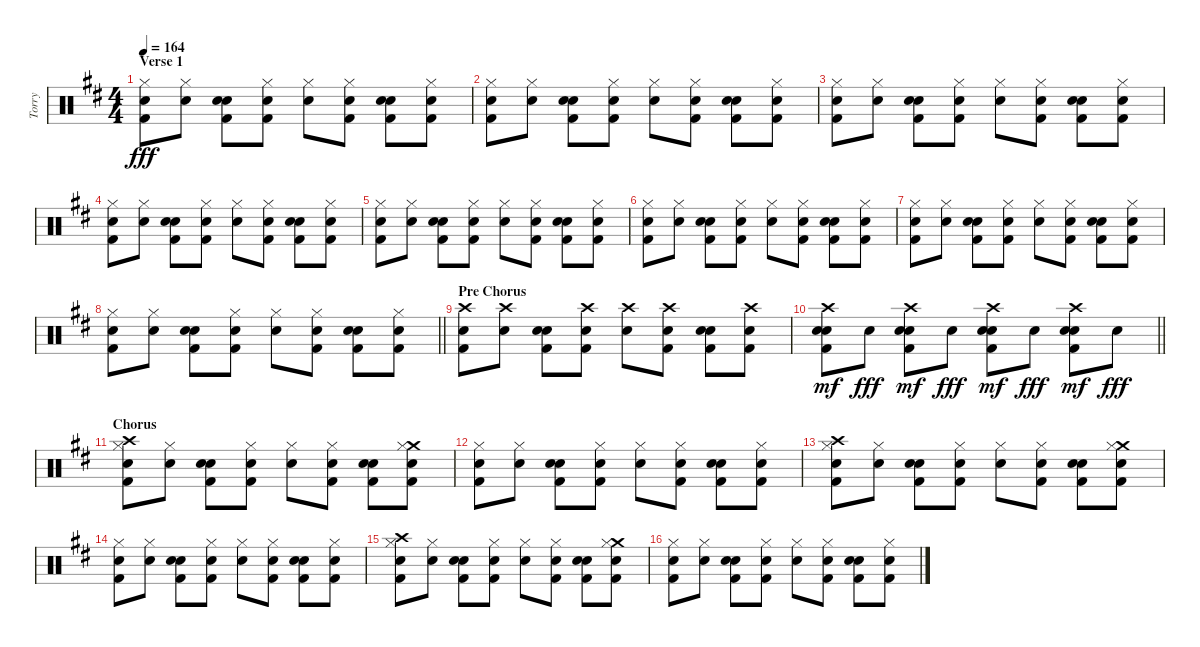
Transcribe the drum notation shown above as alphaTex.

\track ("Torry" "Torry") {instrument percussion}
\staff {score}
\articulation defaults
\ts (4 4)
\section ("" "Verse 1")
\tempo 164
\clef neutral
\ks d
("Hi-Hat (closed)" "Snare (hit) 2" "Kick (hit) 2").8{dy fff} ("Hi-Hat (closed)" "Snare (hit) 2").8 ("Electric Snare (hit)" "Snare (hit) 2" "Kick (hit) 2").8 ("Hi-Hat (closed)" "Snare (hit) 2" "Kick (hit) 2").8 ("Hi-Hat (closed)" "Snare (hit) 2").8 ("Hi-Hat (closed)" "Snare (hit) 2" "Kick (hit) 2").8 ("Electric Snare (hit)" "Snare (hit) 2" "Kick (hit) 2").8 ("Hi-Hat (closed)" "Snare (hit) 2" "Kick (hit) 2").8 |
("Hi-Hat (closed)" "Snare (hit) 2" "Kick (hit) 2").8 ("Hi-Hat (closed)" "Snare (hit) 2").8 ("Electric Snare (hit)" "Snare (hit) 2" "Kick (hit) 2").8 ("Hi-Hat (closed)" "Snare (hit) 2" "Kick (hit) 2").8 ("Hi-Hat (closed)" "Snare (hit) 2").8 ("Hi-Hat (closed)" "Snare (hit) 2" "Kick (hit) 2").8 ("Electric Snare (hit)" "Snare (hit) 2" "Kick (hit) 2").8 ("Hi-Hat (closed)" "Snare (hit) 2" "Kick (hit) 2").8 |
("Hi-Hat (closed)" "Snare (hit) 2" "Kick (hit) 2").8 ("Hi-Hat (closed)" "Snare (hit) 2").8 ("Electric Snare (hit)" "Snare (hit) 2" "Kick (hit) 2").8 ("Hi-Hat (closed)" "Snare (hit) 2" "Kick (hit) 2").8 ("Hi-Hat (closed)" "Snare (hit) 2").8 ("Hi-Hat (closed)" "Snare (hit) 2" "Kick (hit) 2").8 ("Electric Snare (hit)" "Snare (hit) 2" "Kick (hit) 2").8 ("Hi-Hat (closed)" "Snare (hit) 2" "Kick (hit) 2").8 |
("Hi-Hat (closed)" "Snare (hit) 2" "Kick (hit) 2").8 ("Hi-Hat (closed)" "Snare (hit) 2").8 ("Electric Snare (hit)" "Snare (hit) 2" "Kick (hit) 2").8 ("Hi-Hat (closed)" "Snare (hit) 2" "Kick (hit) 2").8 ("Hi-Hat (closed)" "Snare (hit) 2").8 ("Hi-Hat (closed)" "Snare (hit) 2" "Kick (hit) 2").8 ("Electric Snare (hit)" "Snare (hit) 2" "Kick (hit) 2").8 ("Hi-Hat (closed)" "Snare (hit) 2" "Kick (hit) 2").8 |
("Hi-Hat (closed)" "Snare (hit) 2" "Kick (hit) 2").8 ("Hi-Hat (closed)" "Snare (hit) 2").8 ("Electric Snare (hit)" "Snare (hit) 2" "Kick (hit) 2").8 ("Hi-Hat (closed)" "Snare (hit) 2" "Kick (hit) 2").8 ("Hi-Hat (closed)" "Snare (hit) 2").8 ("Hi-Hat (closed)" "Snare (hit) 2" "Kick (hit) 2").8 ("Electric Snare (hit)" "Snare (hit) 2" "Kick (hit) 2").8 ("Hi-Hat (closed)" "Snare (hit) 2" "Kick (hit) 2").8 |
("Hi-Hat (closed)" "Snare (hit) 2" "Kick (hit) 2").8 ("Hi-Hat (closed)" "Snare (hit) 2").8 ("Electric Snare (hit)" "Snare (hit) 2" "Kick (hit) 2").8 ("Hi-Hat (closed)" "Snare (hit) 2" "Kick (hit) 2").8 ("Hi-Hat (closed)" "Snare (hit) 2").8 ("Hi-Hat (closed)" "Snare (hit) 2" "Kick (hit) 2").8 ("Electric Snare (hit)" "Snare (hit) 2" "Kick (hit) 2").8 ("Hi-Hat (closed)" "Snare (hit) 2" "Kick (hit) 2").8 |
("Hi-Hat (closed)" "Snare (hit) 2" "Kick (hit) 2").8 ("Hi-Hat (closed)" "Snare (hit) 2").8 ("Electric Snare (hit)" "Snare (hit) 2" "Kick (hit) 2").8 ("Hi-Hat (closed)" "Snare (hit) 2" "Kick (hit) 2").8 ("Hi-Hat (closed)" "Snare (hit) 2").8 ("Hi-Hat (closed)" "Snare (hit) 2" "Kick (hit) 2").8 ("Electric Snare (hit)" "Snare (hit) 2" "Kick (hit) 2").8 ("Hi-Hat (closed)" "Snare (hit) 2" "Kick (hit) 2").8 |
\barLineRight lightlight
("Hi-Hat (closed)" "Snare (hit) 2" "Kick (hit) 2").8 ("Hi-Hat (closed)" "Snare (hit) 2").8 ("Electric Snare (hit)" "Snare (hit) 2" "Kick (hit) 2").8 ("Hi-Hat (closed)" "Snare (hit) 2" "Kick (hit) 2").8 ("Hi-Hat (closed)" "Snare (hit) 2").8 ("Hi-Hat (closed)" "Snare (hit) 2" "Kick (hit) 2").8 ("Electric Snare (hit)" "Snare (hit) 2" "Kick (hit) 2").8 ("Hi-Hat (closed)" "Snare (hit) 2" "Kick (hit) 2").8 |
\section ("" "Pre Chorus")
("Crash high (hit)" "Snare (hit) 2" "Kick (hit) 2").8 ("Crash high (hit)" "Snare (hit) 2").8 ("Electric Snare (hit)" "Snare (hit) 2" "Kick (hit) 2").8 ("Crash high (hit)" "Snare (hit) 2" "Kick (hit) 2").8 ("Crash high (hit)" "Snare (hit) 2").8 ("Crash high (hit)" "Snare (hit) 2" "Kick (hit) 2").8 ("Electric Snare (hit)" "Snare (hit) 2" "Kick (hit) 2").8 ("Crash high (hit)" "Snare (hit) 2" "Kick (hit) 2").8 |
\barLineRight lightlight
("Crash high (hit)" "Electric Snare (hit)" "Snare (hit) 2" "Kick (hit) 2").8{dy mf} "Electric Snare (hit)".8{dy fff} ("Crash high (hit)" "Electric Snare (hit)" "Snare (hit) 2" "Kick (hit) 2").8{dy mf} "Electric Snare (hit)".8{dy fff} ("Crash high (hit)" "Electric Snare (hit)" "Snare (hit) 2" "Kick (hit) 2").8{dy mf} "Electric Snare (hit)".8{dy fff} ("Crash high (hit)" "Electric Snare (hit)" "Snare (hit) 2" "Kick (hit) 2").8{dy mf} "Electric Snare (hit)".8{dy fff} |
\section ("" "Chorus")
("Crash high (hit)" "Hi-Hat (closed)" "Snare (hit) 2" "Kick (hit) 2").8 ("Hi-Hat (closed)" "Snare (hit) 2").8 ("Electric Snare (hit)" "Snare (hit) 2" "Kick (hit) 2").8 ("Hi-Hat (closed)" "Snare (hit) 2" "Kick (hit) 2").8 ("Hi-Hat (closed)" "Snare (hit) 2").8 ("Hi-Hat (closed)" "Snare (hit) 2" "Kick (hit) 2").8 ("Electric Snare (hit)" "Snare (hit) 2" "Kick (hit) 2").8 ("Crash medium (hit)" "Hi-Hat (closed)" "Snare (hit) 2" "Kick (hit) 2").8 |
("Hi-Hat (closed)" "Snare (hit) 2" "Kick (hit) 2").8 ("Hi-Hat (closed)" "Snare (hit) 2").8 ("Electric Snare (hit)" "Snare (hit) 2" "Kick (hit) 2").8 ("Hi-Hat (closed)" "Snare (hit) 2" "Kick (hit) 2").8 ("Hi-Hat (closed)" "Snare (hit) 2").8 ("Hi-Hat (closed)" "Snare (hit) 2" "Kick (hit) 2").8 ("Electric Snare (hit)" "Snare (hit) 2" "Kick (hit) 2").8 ("Hi-Hat (closed)" "Snare (hit) 2" "Kick (hit) 2").8 |
("Crash high (hit)" "Hi-Hat (closed)" "Snare (hit) 2" "Kick (hit) 2").8 ("Hi-Hat (closed)" "Snare (hit) 2").8 ("Electric Snare (hit)" "Snare (hit) 2" "Kick (hit) 2").8 ("Hi-Hat (closed)" "Snare (hit) 2" "Kick (hit) 2").8 ("Hi-Hat (closed)" "Snare (hit) 2").8 ("Hi-Hat (closed)" "Snare (hit) 2" "Kick (hit) 2").8 ("Electric Snare (hit)" "Snare (hit) 2" "Kick (hit) 2").8 ("Crash medium (hit)" "Hi-Hat (closed)" "Snare (hit) 2" "Kick (hit) 2").8 |
("Hi-Hat (closed)" "Snare (hit) 2" "Kick (hit) 2").8 ("Hi-Hat (closed)" "Snare (hit) 2").8 ("Electric Snare (hit)" "Snare (hit) 2" "Kick (hit) 2").8 ("Hi-Hat (closed)" "Snare (hit) 2" "Kick (hit) 2").8 ("Hi-Hat (closed)" "Snare (hit) 2").8 ("Hi-Hat (closed)" "Snare (hit) 2" "Kick (hit) 2").8 ("Electric Snare (hit)" "Snare (hit) 2" "Kick (hit) 2").8 ("Hi-Hat (closed)" "Snare (hit) 2" "Kick (hit) 2").8 |
("Crash high (hit)" "Hi-Hat (closed)" "Snare (hit) 2" "Kick (hit) 2").8 ("Hi-Hat (closed)" "Snare (hit) 2").8 ("Electric Snare (hit)" "Snare (hit) 2" "Kick (hit) 2").8 ("Hi-Hat (closed)" "Snare (hit) 2" "Kick (hit) 2").8 ("Hi-Hat (closed)" "Snare (hit) 2").8 ("Hi-Hat (closed)" "Snare (hit) 2" "Kick (hit) 2").8 ("Electric Snare (hit)" "Snare (hit) 2" "Kick (hit) 2").8 ("Crash medium (hit)" "Hi-Hat (closed)" "Snare (hit) 2" "Kick (hit) 2").8 |
("Hi-Hat (closed)" "Snare (hit) 2" "Kick (hit) 2").8 ("Hi-Hat (closed)" "Snare (hit) 2").8 ("Electric Snare (hit)" "Snare (hit) 2" "Kick (hit) 2").8 ("Hi-Hat (closed)" "Snare (hit) 2" "Kick (hit) 2").8 ("Hi-Hat (closed)" "Snare (hit) 2").8 ("Hi-Hat (closed)" "Snare (hit) 2" "Kick (hit) 2").8 ("Electric Snare (hit)" "Snare (hit) 2" "Kick (hit) 2").8 ("Hi-Hat (closed)" "Snare (hit) 2" "Kick (hit) 2").8
